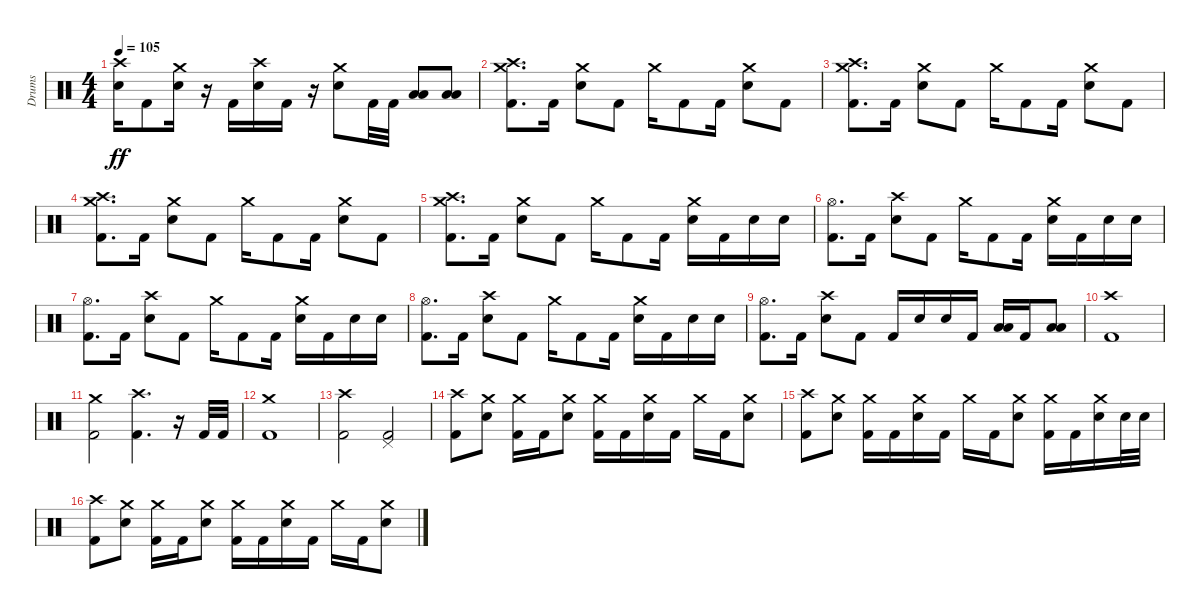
\track ("Drums" "Drums") {instrument percussion}
\staff {score}
\articulation defaults
\ts (4 4)
\tempo 105
\clef neutral
\ks c
("Crash high (hit)" "Electric Snare (hit)").16{dy ff} "Kick (hit) 2".8 ("Crash medium (hit)" "Electric Snare (hit)").16 r.16 "Kick (hit) 2".16 ("Crash high (hit)" "Electric Snare (hit)").16 "Kick (hit) 2".16 r.16 ("Crash medium (hit)" "Electric Snare (hit)").8 "Kick (hit) 2".32 "Kick (hit) 2".32 ("Low Floor Tom (hit)" "Low Floor Tom (hit)").8{bd 240} ("Low Floor Tom (hit)" "Low Floor Tom (hit)").8{bd 240} |
("Crash medium (hit)" "Crash high (hit)" "Kick (hit) 2").8{d} "Kick (hit) 2".16 ("Crash medium (hit)" "Electric Snare (hit)").8 "Kick (hit) 2".8 "Crash medium (hit)".16 "Kick (hit) 2".8 "Kick (hit) 2".16 ("Crash medium (hit)" "Electric Snare (hit)").8 "Kick (hit) 2".8 |
("Crash medium (hit)" "Crash high (hit)" "Kick (hit) 2").8{d} "Kick (hit) 2".16 ("Crash medium (hit)" "Electric Snare (hit)").8 "Kick (hit) 2".8 "Crash medium (hit)".16 "Kick (hit) 2".8 "Kick (hit) 2".16 ("Crash medium (hit)" "Electric Snare (hit)").8 "Kick (hit) 2".8 |
("Crash medium (hit)" "Crash high (hit)" "Kick (hit) 2").8{d} "Kick (hit) 2".16 ("Crash medium (hit)" "Electric Snare (hit)").8 "Kick (hit) 2".8 "Crash medium (hit)".16 "Kick (hit) 2".8 "Kick (hit) 2".16 ("Crash medium (hit)" "Electric Snare (hit)").8 "Kick (hit) 2".8 |
("Crash medium (hit)" "Crash high (hit)" "Kick (hit) 2").8{d} "Kick (hit) 2".16 ("Crash medium (hit)" "Electric Snare (hit)").8 "Kick (hit) 2".8 "Crash medium (hit)".16 "Kick (hit) 2".8 "Kick (hit) 2".16 ("Crash medium (hit)" "Electric Snare (hit)").16 "Kick (hit) 2".16 "Electric Snare (hit)".16 "Electric Snare (hit)".16 |
("Hi-Hat (open)" "Kick (hit) 2").8{d} "Kick (hit) 2".16 ("Crash high (hit)" "Electric Snare (hit)").8 "Kick (hit) 2".8 "Crash medium (hit)".16 "Kick (hit) 2".8 "Kick (hit) 2".16 ("Crash medium (hit)" "Electric Snare (hit)").16 "Kick (hit) 2".16 "Electric Snare (hit)".16 "Electric Snare (hit)".16 |
("Hi-Hat (open)" "Kick (hit) 2").8{d} "Kick (hit) 2".16 ("Crash high (hit)" "Electric Snare (hit)").8 "Kick (hit) 2".8 "Crash medium (hit)".16 "Kick (hit) 2".8 "Kick (hit) 2".16 ("Crash medium (hit)" "Electric Snare (hit)").16 "Kick (hit) 2".16 "Electric Snare (hit)".16 "Electric Snare (hit)".16 |
("Hi-Hat (open)" "Kick (hit) 2").8{d} "Kick (hit) 2".16 ("Crash high (hit)" "Electric Snare (hit)").8 "Kick (hit) 2".8 "Crash medium (hit)".16 "Kick (hit) 2".8 "Kick (hit) 2".16 ("Crash medium (hit)" "Electric Snare (hit)").16 "Kick (hit) 2".16 "Electric Snare (hit)".16 "Electric Snare (hit)".16 |
("Hi-Hat (open)" "Kick (hit) 2").8{d} "Kick (hit) 2".16 ("Crash high (hit)" "Electric Snare (hit)").8 "Kick (hit) 2".8 "Kick (hit) 2".16 "Electric Snare (hit)".16 "Electric Snare (hit)".16 "Kick (hit) 2".16 ("Low Floor Tom (hit)" "Low Tom (hit)").16{bd 240} "Kick (hit) 2".16 ("Low Floor Tom (hit)" "Low Tom (hit)").8{bd 240} |
("Crash high (hit)" "Kick (hit) 2").1 |
("Crash medium (hit)" "Kick (hit) 2").2 ("Crash high (hit)" "Kick (hit) 2").4{d} r.16 "Kick (hit) 2".32 "Kick (hit) 2".32 |
("Crash medium (hit)" "Kick (hit) 2").1 |
("Crash high (hit)" "Kick (hit) 2").2 ("Pedal Hi-Hat (hit)" "Kick (hit) 2").2 |
("Crash high (hit)" "Kick (hit) 2").8 ("Crash medium (hit)" "Electric Snare (hit)").8 ("Crash medium (hit)" "Kick (hit) 2").16 "Kick (hit) 2".16 ("Crash medium (hit)" "Electric Snare (hit)").8 ("Crash medium (hit)" "Kick (hit) 2").16 "Kick (hit) 2".16 ("Crash medium (hit)" "Electric Snare (hit)").16 "Kick (hit) 2".16 "Crash medium (hit)".16 "Kick (hit) 2".16 ("Crash medium (hit)" "Electric Snare (hit)").8 |
("Crash high (hit)" "Kick (hit) 2").8 ("Crash medium (hit)" "Electric Snare (hit)").8 ("Crash medium (hit)" "Kick (hit) 2").16 "Kick (hit) 2".16 ("Crash medium (hit)" "Electric Snare (hit)").16 "Kick (hit) 2".16 "Crash medium (hit)".16 "Kick (hit) 2".16 ("Crash medium (hit)" "Electric Snare (hit)").8 ("Crash medium (hit)" "Kick (hit) 2").16 "Kick (hit) 2".16 ("Crash medium (hit)" "Electric Snare (hit)").16 "Electric Snare (hit)".32 "Electric Snare (hit)".32 |
("Crash high (hit)" "Kick (hit) 2").8 ("Crash medium (hit)" "Electric Snare (hit)").8 ("Crash medium (hit)" "Kick (hit) 2").16 "Kick (hit) 2".16 ("Crash medium (hit)" "Electric Snare (hit)").8 ("Crash medium (hit)" "Kick (hit) 2").16 "Kick (hit) 2".16 ("Crash medium (hit)" "Electric Snare (hit)").16 "Kick (hit) 2".16 "Crash medium (hit)".16 "Kick (hit) 2".16 ("Crash medium (hit)" "Electric Snare (hit)").8
